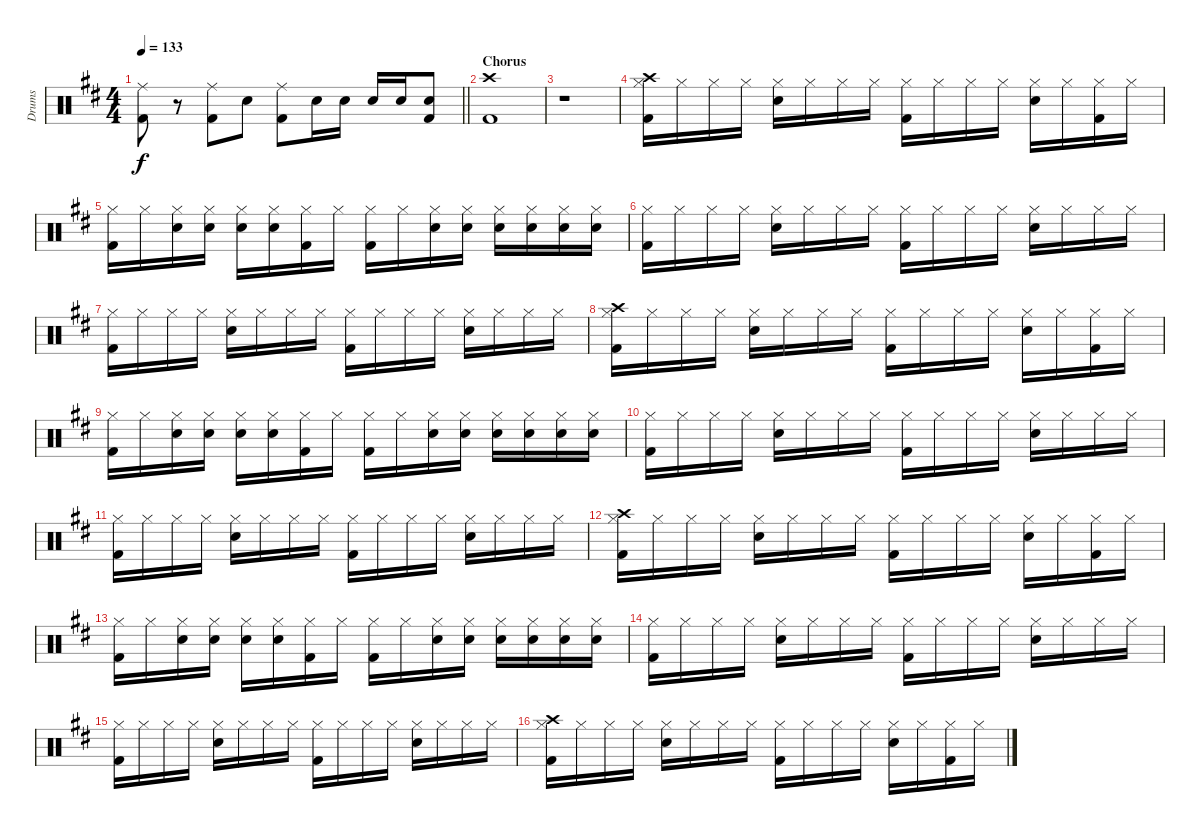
\track ("Drums" "Drums") {instrument percussion}
\staff {score}
\articulation defaults
\ts (4 4)
\tempo 133
\clef neutral
\barLineRight lightlight
\ks d
("Ride (middle)" "Kick (hit) 2").8{dy f} r.8 ("Ride (middle)" "Kick (hit) 2").8 "Snare (hit) 2".8 ("Ride (middle)" "Kick (hit) 2").8 "Snare (hit) 2".16 "Snare (hit) 2".16 "Snare (hit) 2".16 "Snare (hit) 2".16 ("Snare (hit) 2" "Kick (hit) 2").8 |
\section ("" "Chorus")
("Crash high (hit)" "Kick (hit) 2").1 |
r.1 |
("Crash high (hit)" "Hi-Hat (closed)" "Kick (hit) 2").16 "Hi-Hat (closed)".16 "Hi-Hat (closed)".16 "Hi-Hat (closed)".16 ("Hi-Hat (closed)" "Snare (hit) 2").16 "Hi-Hat (closed)".16 "Hi-Hat (closed)".16 "Hi-Hat (closed)".16 ("Hi-Hat (closed)" "Kick (hit) 2").16 "Hi-Hat (closed)".16 "Hi-Hat (closed)".16 "Hi-Hat (closed)".16 ("Hi-Hat (closed)" "Snare (hit) 2").16 "Hi-Hat (closed)".16 ("Hi-Hat (closed)" "Kick (hit) 2").16 "Hi-Hat (closed)".16 |
("Hi-Hat (closed)" "Kick (hit) 2").16 "Hi-Hat (closed)".16 ("Hi-Hat (closed)" "Snare (hit) 2").16 ("Hi-Hat (closed)" "Snare (hit) 2").16 ("Hi-Hat (closed)" "Snare (hit) 2").16 ("Hi-Hat (closed)" "Snare (hit) 2").16 ("Hi-Hat (closed)" "Kick (hit) 2").16 "Hi-Hat (closed)".16 ("Hi-Hat (closed)" "Kick (hit) 2").16 "Hi-Hat (closed)".16 ("Hi-Hat (closed)" "Snare (hit) 2").16 ("Hi-Hat (closed)" "Snare (hit) 2").16 ("Hi-Hat (closed)" "Snare (hit) 2").16 ("Hi-Hat (closed)" "Snare (hit) 2").16 ("Hi-Hat (closed)" "Snare (hit) 2").16 ("Hi-Hat (closed)" "Snare (hit) 2").16 |
("Hi-Hat (closed)" "Kick (hit) 2").16 "Hi-Hat (closed)".16 "Hi-Hat (closed)".16 "Hi-Hat (closed)".16 ("Hi-Hat (closed)" "Snare (hit) 2").16 "Hi-Hat (closed)".16 "Hi-Hat (closed)".16 "Hi-Hat (closed)".16 ("Hi-Hat (closed)" "Kick (hit) 2").16 "Hi-Hat (closed)".16 "Hi-Hat (closed)".16 "Hi-Hat (closed)".16 ("Hi-Hat (closed)" "Snare (hit) 2").16 "Hi-Hat (closed)".16 "Hi-Hat (closed)".16 "Hi-Hat (closed)".16 |
("Hi-Hat (closed)" "Kick (hit) 2").16 "Hi-Hat (closed)".16 "Hi-Hat (closed)".16 "Hi-Hat (closed)".16 ("Hi-Hat (closed)" "Snare (hit) 2").16 "Hi-Hat (closed)".16 "Hi-Hat (closed)".16 "Hi-Hat (closed)".16 ("Hi-Hat (closed)" "Kick (hit) 2").16 "Hi-Hat (closed)".16 "Hi-Hat (closed)".16 "Hi-Hat (closed)".16 ("Hi-Hat (closed)" "Snare (hit) 2").16 "Hi-Hat (closed)".16 "Hi-Hat (closed)".16 "Hi-Hat (closed)".16 |
("Crash high (hit)" "Hi-Hat (closed)" "Kick (hit) 2").16 "Hi-Hat (closed)".16 "Hi-Hat (closed)".16 "Hi-Hat (closed)".16 ("Hi-Hat (closed)" "Snare (hit) 2").16 "Hi-Hat (closed)".16 "Hi-Hat (closed)".16 "Hi-Hat (closed)".16 ("Hi-Hat (closed)" "Kick (hit) 2").16 "Hi-Hat (closed)".16 "Hi-Hat (closed)".16 "Hi-Hat (closed)".16 ("Hi-Hat (closed)" "Snare (hit) 2").16 "Hi-Hat (closed)".16 ("Hi-Hat (closed)" "Kick (hit) 2").16 "Hi-Hat (closed)".16 |
("Hi-Hat (closed)" "Kick (hit) 2").16 "Hi-Hat (closed)".16 ("Hi-Hat (closed)" "Snare (hit) 2").16 ("Hi-Hat (closed)" "Snare (hit) 2").16 ("Hi-Hat (closed)" "Snare (hit) 2").16 ("Hi-Hat (closed)" "Snare (hit) 2").16 ("Hi-Hat (closed)" "Kick (hit) 2").16 "Hi-Hat (closed)".16 ("Hi-Hat (closed)" "Kick (hit) 2").16 "Hi-Hat (closed)".16 ("Hi-Hat (closed)" "Snare (hit) 2").16 ("Hi-Hat (closed)" "Snare (hit) 2").16 ("Hi-Hat (closed)" "Snare (hit) 2").16 ("Hi-Hat (closed)" "Snare (hit) 2").16 ("Hi-Hat (closed)" "Snare (hit) 2").16 ("Hi-Hat (closed)" "Snare (hit) 2").16 |
("Hi-Hat (closed)" "Kick (hit) 2").16 "Hi-Hat (closed)".16 "Hi-Hat (closed)".16 "Hi-Hat (closed)".16 ("Hi-Hat (closed)" "Snare (hit) 2").16 "Hi-Hat (closed)".16 "Hi-Hat (closed)".16 "Hi-Hat (closed)".16 ("Hi-Hat (closed)" "Kick (hit) 2").16 "Hi-Hat (closed)".16 "Hi-Hat (closed)".16 "Hi-Hat (closed)".16 ("Hi-Hat (closed)" "Snare (hit) 2").16 "Hi-Hat (closed)".16 "Hi-Hat (closed)".16 "Hi-Hat (closed)".16 |
("Hi-Hat (closed)" "Kick (hit) 2").16 "Hi-Hat (closed)".16 "Hi-Hat (closed)".16 "Hi-Hat (closed)".16 ("Hi-Hat (closed)" "Snare (hit) 2").16 "Hi-Hat (closed)".16 "Hi-Hat (closed)".16 "Hi-Hat (closed)".16 ("Hi-Hat (closed)" "Kick (hit) 2").16 "Hi-Hat (closed)".16 "Hi-Hat (closed)".16 "Hi-Hat (closed)".16 ("Hi-Hat (closed)" "Snare (hit) 2").16 "Hi-Hat (closed)".16 "Hi-Hat (closed)".16 "Hi-Hat (closed)".16 |
("Crash high (hit)" "Hi-Hat (closed)" "Kick (hit) 2").16 "Hi-Hat (closed)".16 "Hi-Hat (closed)".16 "Hi-Hat (closed)".16 ("Hi-Hat (closed)" "Snare (hit) 2").16 "Hi-Hat (closed)".16 "Hi-Hat (closed)".16 "Hi-Hat (closed)".16 ("Hi-Hat (closed)" "Kick (hit) 2").16 "Hi-Hat (closed)".16 "Hi-Hat (closed)".16 "Hi-Hat (closed)".16 ("Hi-Hat (closed)" "Snare (hit) 2").16 "Hi-Hat (closed)".16 ("Hi-Hat (closed)" "Kick (hit) 2").16 "Hi-Hat (closed)".16 |
("Hi-Hat (closed)" "Kick (hit) 2").16 "Hi-Hat (closed)".16 ("Hi-Hat (closed)" "Snare (hit) 2").16 ("Hi-Hat (closed)" "Snare (hit) 2").16 ("Hi-Hat (closed)" "Snare (hit) 2").16 ("Hi-Hat (closed)" "Snare (hit) 2").16 ("Hi-Hat (closed)" "Kick (hit) 2").16 "Hi-Hat (closed)".16 ("Hi-Hat (closed)" "Kick (hit) 2").16 "Hi-Hat (closed)".16 ("Hi-Hat (closed)" "Snare (hit) 2").16 ("Hi-Hat (closed)" "Snare (hit) 2").16 ("Hi-Hat (closed)" "Snare (hit) 2").16 ("Hi-Hat (closed)" "Snare (hit) 2").16 ("Hi-Hat (closed)" "Snare (hit) 2").16 ("Hi-Hat (closed)" "Snare (hit) 2").16 |
("Hi-Hat (closed)" "Kick (hit) 2").16 "Hi-Hat (closed)".16 "Hi-Hat (closed)".16 "Hi-Hat (closed)".16 ("Hi-Hat (closed)" "Snare (hit) 2").16 "Hi-Hat (closed)".16 "Hi-Hat (closed)".16 "Hi-Hat (closed)".16 ("Hi-Hat (closed)" "Kick (hit) 2").16 "Hi-Hat (closed)".16 "Hi-Hat (closed)".16 "Hi-Hat (closed)".16 ("Hi-Hat (closed)" "Snare (hit) 2").16 "Hi-Hat (closed)".16 "Hi-Hat (closed)".16 "Hi-Hat (closed)".16 |
("Hi-Hat (closed)" "Kick (hit) 2").16 "Hi-Hat (closed)".16 "Hi-Hat (closed)".16 "Hi-Hat (closed)".16 ("Hi-Hat (closed)" "Snare (hit) 2").16 "Hi-Hat (closed)".16 "Hi-Hat (closed)".16 "Hi-Hat (closed)".16 ("Hi-Hat (closed)" "Kick (hit) 2").16 "Hi-Hat (closed)".16 "Hi-Hat (closed)".16 "Hi-Hat (closed)".16 ("Hi-Hat (closed)" "Snare (hit) 2").16 "Hi-Hat (closed)".16 "Hi-Hat (closed)".16 "Hi-Hat (closed)".16 |
("Crash high (hit)" "Hi-Hat (closed)" "Kick (hit) 2").16 "Hi-Hat (closed)".16 "Hi-Hat (closed)".16 "Hi-Hat (closed)".16 ("Hi-Hat (closed)" "Snare (hit) 2").16 "Hi-Hat (closed)".16 "Hi-Hat (closed)".16 "Hi-Hat (closed)".16 ("Hi-Hat (closed)" "Kick (hit) 2").16 "Hi-Hat (closed)".16 "Hi-Hat (closed)".16 "Hi-Hat (closed)".16 ("Hi-Hat (closed)" "Snare (hit) 2").16 "Hi-Hat (closed)".16 ("Hi-Hat (closed)" "Kick (hit) 2").16 "Hi-Hat (closed)".16
